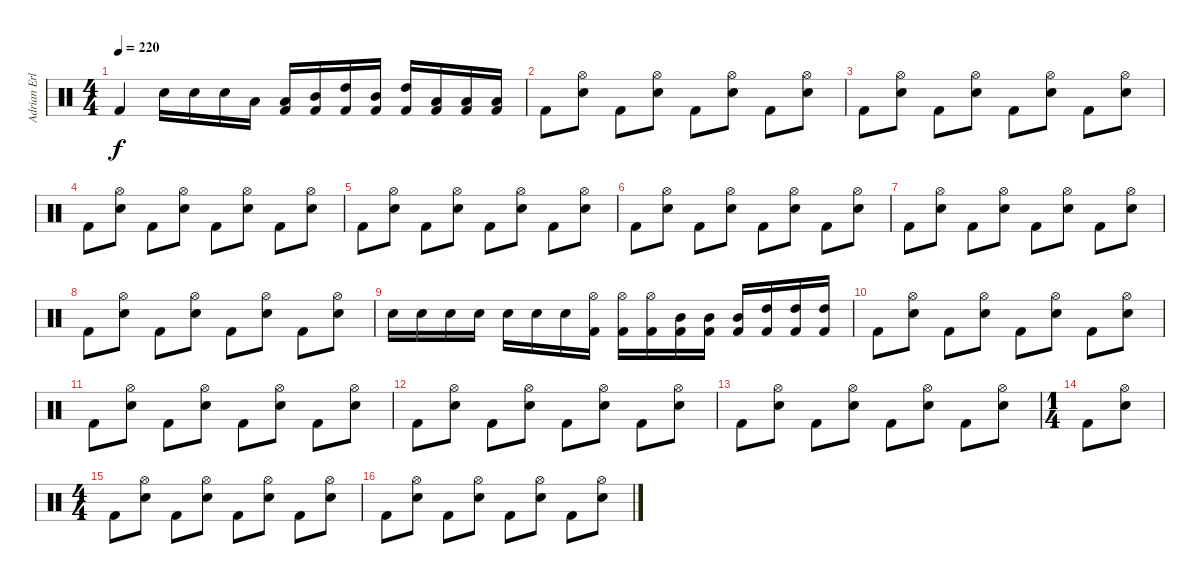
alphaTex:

\track ("Adrian Erlandsson" "Adrian Erl") {instrument percussion}
\staff {score}
\articulation defaults
\ts (4 4)
\tempo 220
\clef neutral
\ks c "Kick (hit) 2".4{dy f} "Snare (hit) 2".16 "Snare (hit) 2".16 "Snare (hit) 2".16 "Low Tom (hit)".16
("Low Tom (hit)" "Kick (hit) 2").16 ("Mid Tom (hit)" "Kick (hit) 2").16 ("High Tom (hit)" "Kick (hit) 2").16 ("Mid Tom (hit)" "Kick (hit) 2").16 ("High Tom (hit)" "Kick (hit) 2").16 ("Low Tom (hit)" "Kick (hit) 2").16 ("Low Tom (hit)" "Kick (hit) 2").16 ("Low Tom (hit)" "Kick (hit) 2").16 |
"Kick (hit) 2".8 ("Hi-Hat (open)" "Snare (hit) 2").8 "Kick (hit) 2".8 ("Hi-Hat (open)" "Snare (hit) 2").8 "Kick (hit) 2".8 ("Hi-Hat (open)" "Snare (hit) 2").8 "Kick (hit) 2".8 ("Hi-Hat (open)" "Snare (hit) 2").8 |
"Kick (hit) 2".8 ("Hi-Hat (open)" "Snare (hit) 2").8 "Kick (hit) 2".8 ("Hi-Hat (open)" "Snare (hit) 2").8 "Kick (hit) 2".8 ("Hi-Hat (open)" "Snare (hit) 2").8 "Kick (hit) 2".8 ("Hi-Hat (open)" "Snare (hit) 2").8 |
"Kick (hit) 2".8 ("Hi-Hat (open)" "Snare (hit) 2").8 "Kick (hit) 2".8 ("Hi-Hat (open)" "Snare (hit) 2").8 "Kick (hit) 2".8 ("Hi-Hat (open)" "Snare (hit) 2").8 "Kick (hit) 2".8 ("Hi-Hat (open)" "Snare (hit) 2").8 |
"Kick (hit) 2".8 ("Hi-Hat (open)" "Snare (hit) 2").8 "Kick (hit) 2".8 ("Hi-Hat (open)" "Snare (hit) 2").8 "Kick (hit) 2".8 ("Hi-Hat (open)" "Snare (hit) 2").8 "Kick (hit) 2".8 ("Hi-Hat (open)" "Snare (hit) 2").8 |
"Kick (hit) 2".8 ("Hi-Hat (open)" "Snare (hit) 2").8 "Kick (hit) 2".8 ("Hi-Hat (open)" "Snare (hit) 2").8 "Kick (hit) 2".8 ("Hi-Hat (open)" "Snare (hit) 2").8 "Kick (hit) 2".8 ("Hi-Hat (open)" "Snare (hit) 2").8 |
"Kick (hit) 2".8 ("Hi-Hat (open)" "Snare (hit) 2").8 "Kick (hit) 2".8 ("Hi-Hat (open)" "Snare (hit) 2").8 "Kick (hit) 2".8 ("Hi-Hat (open)" "Snare (hit) 2").8 "Kick (hit) 2".8 ("Hi-Hat (open)" "Snare (hit) 2").8 |
"Kick (hit) 2".8 ("Hi-Hat (open)" "Snare (hit) 2").8 "Kick (hit) 2".8 ("Hi-Hat (open)" "Snare (hit) 2").8 "Kick (hit) 2".8 ("Hi-Hat (open)" "Snare (hit) 2").8 "Kick (hit) 2".8 ("Hi-Hat (open)" "Snare (hit) 2").8 |
"Snare (hit) 2".16 "Snare (hit) 2".16 "Snare (hit) 2".16 "Snare (hit) 2".16 "Snare (hit) 2".16 "Snare (hit) 2".16 "Snare (hit) 2".16 ("Hi-Hat (open)" "Kick (hit) 2").16 ("Hi-Hat (open)" "Kick (hit) 2").16 ("Hi-Hat (open)" "Kick (hit) 2").16 ("Mid Tom (hit)" "Kick (hit) 2").16 ("Mid Tom (hit)" "Kick (hit) 2").16 ("Mid Tom (hit)" "Kick (hit) 2").16 ("High Tom (hit)" "Kick (hit) 2").16 ("High Tom (hit)" "Kick (hit) 2").16 ("High Tom (hit)" "Kick (hit) 2").16 |
"Kick (hit) 2".8 ("Hi-Hat (open)" "Snare (hit) 2").8 "Kick (hit) 2".8 ("Hi-Hat (open)" "Snare (hit) 2").8 "Kick (hit) 2".8 ("Hi-Hat (open)" "Snare (hit) 2").8 "Kick (hit) 2".8 ("Hi-Hat (open)" "Snare (hit) 2").8 |
"Kick (hit) 2".8 ("Hi-Hat (open)" "Snare (hit) 2").8 "Kick (hit) 2".8 ("Hi-Hat (open)" "Snare (hit) 2").8 "Kick (hit) 2".8 ("Hi-Hat (open)" "Snare (hit) 2").8 "Kick (hit) 2".8 ("Hi-Hat (open)" "Snare (hit) 2").8 |
"Kick (hit) 2".8 ("Hi-Hat (open)" "Snare (hit) 2").8 "Kick (hit) 2".8 ("Hi-Hat (open)" "Snare (hit) 2").8 "Kick (hit) 2".8 ("Hi-Hat (open)" "Snare (hit) 2").8 "Kick (hit) 2".8 ("Hi-Hat (open)" "Snare (hit) 2").8 |
"Kick (hit) 2".8 ("Hi-Hat (open)" "Snare (hit) 2").8 "Kick (hit) 2".8 ("Hi-Hat (open)" "Snare (hit) 2").8 "Kick (hit) 2".8 ("Hi-Hat (open)" "Snare (hit) 2").8 "Kick (hit) 2".8 ("Hi-Hat (open)" "Snare (hit) 2").8 |
\ts (1 4)
"Kick (hit) 2".8 ("Hi-Hat (open)" "Snare (hit) 2").8 |
\ts (4 4)
"Kick (hit) 2".8 ("Hi-Hat (open)" "Snare (hit) 2").8 "Kick (hit) 2".8 ("Hi-Hat (open)" "Snare (hit) 2").8 "Kick (hit) 2".8 ("Hi-Hat (open)" "Snare (hit) 2").8 "Kick (hit) 2".8 ("Hi-Hat (open)" "Snare (hit) 2").8 |
"Kick (hit) 2".8 ("Hi-Hat (open)" "Snare (hit) 2").8 "Kick (hit) 2".8 ("Hi-Hat (open)" "Snare (hit) 2").8 "Kick (hit) 2".8 ("Hi-Hat (open)" "Snare (hit) 2").8 "Kick (hit) 2".8 ("Hi-Hat (open)" "Snare (hit) 2").8
